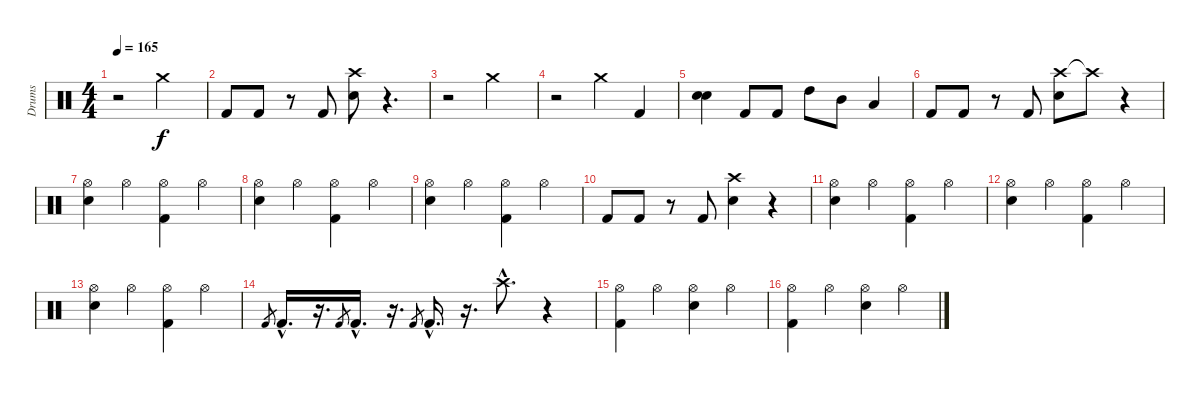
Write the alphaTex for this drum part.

\track ("Drums" "Drums") {instrument percussion}
\staff {score}
\articulation defaults
\ts (4 4)
\tempo 165
\clef neutral
\ks c
r.2{dy f} "Crash medium (hit)".2 |
"Kick (hit) 2".8 "Kick (hit) 2".8 r.8 "Kick (hit) 2".8 ("Crash high (hit)" "Snare (hit) 2").8 r.4{d} |
r.2 "Crash medium (hit)".2 |
r.2 "Crash medium (hit)".4 "Kick (hit) 2".4 |
("Snare (hit) 2" "Snare (hit) 2").4 "Kick (hit) 2".8 "Kick (hit) 2".8 "High Tom (hit)".8 "Mid Tom (hit)".8 "Low Tom (hit)".4 |
"Kick (hit) 2".8 "Kick (hit) 2".8 r.8 "Kick (hit) 2".8 ("Crash high (hit)" "Snare (hit) 2").8 "Crash high (hit)"{t}.8 r.4 |
("Hi-Hat (open)" "Snare (hit) 2").4 "Hi-Hat (open)".4 ("Hi-Hat (open)" "Kick (hit) 2").4 "Hi-Hat (open)".4 |
("Hi-Hat (open)" "Snare (hit) 2").4 "Hi-Hat (open)".4 ("Hi-Hat (open)" "Kick (hit) 2").4 "Hi-Hat (open)".4 |
("Hi-Hat (open)" "Snare (hit) 2").4 "Hi-Hat (open)".4 ("Hi-Hat (open)" "Kick (hit) 2").4 "Hi-Hat (open)".4 |
"Kick (hit) 2".8 "Kick (hit) 2".8 r.8 "Kick (hit) 2".8 ("Crash high (hit)" "Snare (hit) 2").4 r.4 |
("Hi-Hat (open)" "Snare (hit) 2").4 "Hi-Hat (open)".4 ("Hi-Hat (open)" "Kick (hit) 2").4 "Hi-Hat (open)".4 |
("Hi-Hat (open)" "Snare (hit) 2").4 "Hi-Hat (open)".4 ("Hi-Hat (open)" "Kick (hit) 2").4 "Hi-Hat (open)".4 |
("Hi-Hat (open)" "Snare (hit) 2").4 "Hi-Hat (open)".4 ("Hi-Hat (open)" "Kick (hit) 2").4 "Hi-Hat (open)".4 |
"Kick (hit) 2".8{gr} "Kick (hit) 2"{hac}.16{d} r.16{d} "Kick (hit) 2".8{gr} "Kick (hit) 2"{hac}.16{d} r.16{d} "Kick (hit) 2".8{gr} "Kick (hit) 2"{hac}.16{d} r.16{d} "Crash high (hit)"{hac}.8{d} r.4 |
("Hi-Hat (open)" "Kick (hit) 2").4 "Hi-Hat (open)".4 ("Hi-Hat (open)" "Snare (hit) 2").4 "Hi-Hat (open)".4 |
("Hi-Hat (open)" "Kick (hit) 2").4 "Hi-Hat (open)".4 ("Hi-Hat (open)" "Snare (hit) 2").4 "Hi-Hat (open)".4
